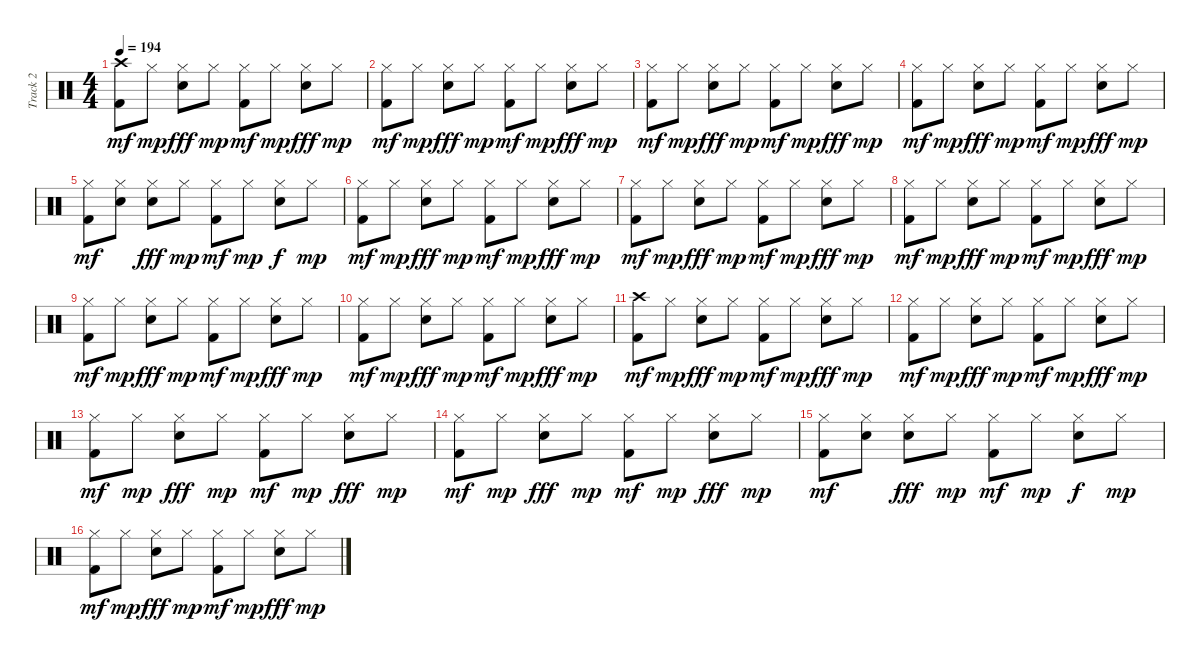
\track ("Track 2" "Track 2") {instrument percussion}
\staff {score}
\articulation defaults
\ts (4 4)
\tempo 194
\clef neutral
\ks c
("Crash high (hit)" "Kick (hit) 2").8{dy mf} "Hi-Hat (closed)".8{dy mp} ("Hi-Hat (closed)" "Snare (hit)").8{dy fff} "Hi-Hat (closed)".8{dy mp} ("Hi-Hat (closed)" "Kick (hit) 2").8{dy mf} "Hi-Hat (closed)".8{dy mp} ("Hi-Hat (closed)" "Snare (hit)").8{dy fff} "Hi-Hat (closed)".8{dy mp} |
("Hi-Hat (closed)" "Kick (hit) 2").8{dy mf} "Hi-Hat (closed)".8{dy mp} ("Hi-Hat (closed)" "Snare (hit)").8{dy fff} "Hi-Hat (closed)".8{dy mp} ("Hi-Hat (closed)" "Kick (hit) 2").8{dy mf} "Hi-Hat (closed)".8{dy mp} ("Hi-Hat (closed)" "Snare (hit)").8{dy fff} "Hi-Hat (closed)".8{dy mp} |
("Hi-Hat (closed)" "Kick (hit) 2").8{dy mf} "Hi-Hat (closed)".8{dy mp} ("Hi-Hat (closed)" "Snare (hit)").8{dy fff} "Hi-Hat (closed)".8{dy mp} ("Hi-Hat (closed)" "Kick (hit) 2").8{dy mf} "Hi-Hat (closed)".8{dy mp} ("Hi-Hat (closed)" "Snare (hit)").8{dy fff} "Hi-Hat (closed)".8{dy mp} |
("Hi-Hat (closed)" "Kick (hit) 2").8{dy mf} "Hi-Hat (closed)".8{dy mp} ("Hi-Hat (closed)" "Snare (hit)").8{dy fff} "Hi-Hat (closed)".8{dy mp} ("Hi-Hat (closed)" "Kick (hit) 2").8{dy mf} "Hi-Hat (closed)".8{dy mp} ("Hi-Hat (closed)" "Snare (hit)").8{dy fff} "Hi-Hat (closed)".8{dy mp} |
("Hi-Hat (closed)" "Kick (hit) 2").8{dy mf} ("Hi-Hat (closed)" "Snare (hit)").8 ("Hi-Hat (closed)" "Snare (hit)").8{dy fff} "Hi-Hat (closed)".8{dy mp} ("Hi-Hat (closed)" "Kick (hit) 2").8{dy mf} "Hi-Hat (closed)".8{dy mp} ("Hi-Hat (closed)" "Snare (hit)").8{dy f} "Hi-Hat (closed)".8{dy mp} |
("Hi-Hat (closed)" "Kick (hit) 2").8{dy mf} "Hi-Hat (closed)".8{dy mp} ("Hi-Hat (closed)" "Snare (hit)").8{dy fff} "Hi-Hat (closed)".8{dy mp} ("Hi-Hat (closed)" "Kick (hit) 2").8{dy mf} "Hi-Hat (closed)".8{dy mp} ("Hi-Hat (closed)" "Snare (hit)").8{dy fff} "Hi-Hat (closed)".8{dy mp} |
("Hi-Hat (closed)" "Kick (hit) 2").8{dy mf} "Hi-Hat (closed)".8{dy mp} ("Hi-Hat (closed)" "Snare (hit)").8{dy fff} "Hi-Hat (closed)".8{dy mp} ("Hi-Hat (closed)" "Kick (hit) 2").8{dy mf} "Hi-Hat (closed)".8{dy mp} ("Hi-Hat (closed)" "Snare (hit)").8{dy fff} "Hi-Hat (closed)".8{dy mp} |
("Hi-Hat (closed)" "Kick (hit) 2").8{dy mf} "Hi-Hat (closed)".8{dy mp} ("Hi-Hat (closed)" "Snare (hit)").8{dy fff} "Hi-Hat (closed)".8{dy mp} ("Hi-Hat (closed)" "Kick (hit) 2").8{dy mf} "Hi-Hat (closed)".8{dy mp} ("Hi-Hat (closed)" "Snare (hit)").8{dy fff} "Hi-Hat (closed)".8{dy mp} |
("Hi-Hat (closed)" "Kick (hit) 2").8{dy mf} "Hi-Hat (closed)".8{dy mp} ("Hi-Hat (closed)" "Snare (hit)").8{dy fff} "Hi-Hat (closed)".8{dy mp} ("Hi-Hat (closed)" "Kick (hit) 2").8{dy mf} "Hi-Hat (closed)".8{dy mp} ("Hi-Hat (closed)" "Snare (hit)").8{dy fff} "Hi-Hat (closed)".8{dy mp} |
("Hi-Hat (closed)" "Kick (hit) 2").8{dy mf} "Hi-Hat (closed)".8{dy mp} ("Hi-Hat (closed)" "Snare (hit)").8{dy fff} "Hi-Hat (closed)".8{dy mp} ("Hi-Hat (closed)" "Kick (hit) 2").8{dy mf} "Hi-Hat (closed)".8{dy mp} ("Hi-Hat (closed)" "Snare (hit)").8{dy fff} "Hi-Hat (closed)".8{dy mp} |
("Crash high (hit)" "Kick (hit) 2").8{dy mf} "Hi-Hat (closed)".8{dy mp} ("Hi-Hat (closed)" "Snare (hit)").8{dy fff} "Hi-Hat (closed)".8{dy mp} ("Hi-Hat (closed)" "Kick (hit) 2").8{dy mf} "Hi-Hat (closed)".8{dy mp} ("Hi-Hat (closed)" "Snare (hit)").8{dy fff} "Hi-Hat (closed)".8{dy mp} |
("Hi-Hat (closed)" "Kick (hit) 2").8{dy mf} "Hi-Hat (closed)".8{dy mp} ("Hi-Hat (closed)" "Snare (hit)").8{dy fff} "Hi-Hat (closed)".8{dy mp} ("Hi-Hat (closed)" "Kick (hit) 2").8{dy mf} "Hi-Hat (closed)".8{dy mp} ("Hi-Hat (closed)" "Snare (hit)").8{dy fff} "Hi-Hat (closed)".8{dy mp} |
("Hi-Hat (closed)" "Kick (hit) 2").8{dy mf} "Hi-Hat (closed)".8{dy mp} ("Hi-Hat (closed)" "Snare (hit)").8{dy fff} "Hi-Hat (closed)".8{dy mp} ("Hi-Hat (closed)" "Kick (hit) 2").8{dy mf} "Hi-Hat (closed)".8{dy mp} ("Hi-Hat (closed)" "Snare (hit)").8{dy fff} "Hi-Hat (closed)".8{dy mp} |
("Hi-Hat (closed)" "Kick (hit) 2").8{dy mf} "Hi-Hat (closed)".8{dy mp} ("Hi-Hat (closed)" "Snare (hit)").8{dy fff} "Hi-Hat (closed)".8{dy mp} ("Hi-Hat (closed)" "Kick (hit) 2").8{dy mf} "Hi-Hat (closed)".8{dy mp} ("Hi-Hat (closed)" "Snare (hit)").8{dy fff} "Hi-Hat (closed)".8{dy mp} |
("Hi-Hat (closed)" "Kick (hit) 2").8{dy mf} ("Hi-Hat (closed)" "Snare (hit)").8 ("Hi-Hat (closed)" "Snare (hit)").8{dy fff} "Hi-Hat (closed)".8{dy mp} ("Hi-Hat (closed)" "Kick (hit) 2").8{dy mf} "Hi-Hat (closed)".8{dy mp} ("Hi-Hat (closed)" "Snare (hit)").8{dy f} "Hi-Hat (closed)".8{dy mp} |
("Hi-Hat (closed)" "Kick (hit) 2").8{dy mf} "Hi-Hat (closed)".8{dy mp} ("Hi-Hat (closed)" "Snare (hit)").8{dy fff} "Hi-Hat (closed)".8{dy mp} ("Hi-Hat (closed)" "Kick (hit) 2").8{dy mf} "Hi-Hat (closed)".8{dy mp} ("Hi-Hat (closed)" "Snare (hit)").8{dy fff} "Hi-Hat (closed)".8{dy mp}
